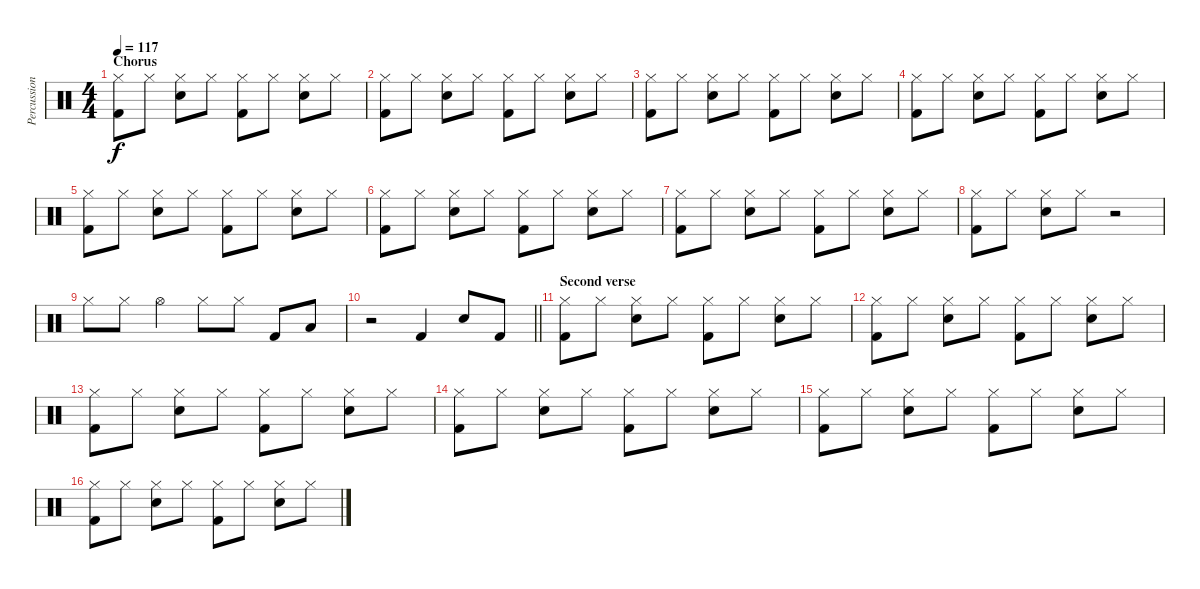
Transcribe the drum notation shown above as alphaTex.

\track ("Percussion" "Percussion") {instrument percussion}
\staff {score}
\articulation defaults
\ts (4 4)
\section ("" "Chorus")
\tempo 117
\clef neutral
\ks c
("Kick (hit) 2" "Hi-Hat (closed)").8{dy f} "Hi-Hat (closed)".8 ("Hi-Hat (closed)" "Snare (hit) 2").8 "Hi-Hat (closed)".8 ("Kick (hit) 2" "Hi-Hat (closed)").8 "Hi-Hat (closed)".8 ("Hi-Hat (closed)" "Snare (hit) 2").8 "Hi-Hat (closed)".8 |
("Kick (hit) 2" "Hi-Hat (closed)").8 "Hi-Hat (closed)".8 ("Hi-Hat (closed)" "Snare (hit) 2").8 "Hi-Hat (closed)".8 ("Kick (hit) 2" "Hi-Hat (closed)").8 "Hi-Hat (closed)".8 ("Hi-Hat (closed)" "Snare (hit) 2").8 "Hi-Hat (closed)".8 |
("Kick (hit) 2" "Hi-Hat (closed)").8 "Hi-Hat (closed)".8 ("Hi-Hat (closed)" "Snare (hit) 2").8 "Hi-Hat (closed)".8 ("Kick (hit) 2" "Hi-Hat (closed)").8 "Hi-Hat (closed)".8 ("Hi-Hat (closed)" "Snare (hit) 2").8 "Hi-Hat (closed)".8 |
("Kick (hit) 2" "Hi-Hat (closed)").8 "Hi-Hat (closed)".8 ("Hi-Hat (closed)" "Snare (hit) 2").8 "Hi-Hat (closed)".8 ("Kick (hit) 2" "Hi-Hat (closed)").8 "Hi-Hat (closed)".8 ("Hi-Hat (closed)" "Snare (hit) 2").8 "Hi-Hat (closed)".8 |
("Kick (hit) 2" "Hi-Hat (closed)").8 "Hi-Hat (closed)".8 ("Hi-Hat (closed)" "Snare (hit) 2").8 "Hi-Hat (closed)".8 ("Kick (hit) 2" "Hi-Hat (closed)").8 "Hi-Hat (closed)".8 ("Hi-Hat (closed)" "Snare (hit) 2").8 "Hi-Hat (closed)".8 |
("Kick (hit) 2" "Hi-Hat (closed)").8 "Hi-Hat (closed)".8 ("Hi-Hat (closed)" "Snare (hit) 2").8 "Hi-Hat (closed)".8 ("Kick (hit) 2" "Hi-Hat (closed)").8 "Hi-Hat (closed)".8 ("Hi-Hat (closed)" "Snare (hit) 2").8 "Hi-Hat (closed)".8 |
("Kick (hit) 2" "Hi-Hat (closed)").8 "Hi-Hat (closed)".8 ("Hi-Hat (closed)" "Snare (hit) 2").8 "Hi-Hat (closed)".8 ("Kick (hit) 2" "Hi-Hat (closed)").8 "Hi-Hat (closed)".8 ("Hi-Hat (closed)" "Snare (hit) 2").8 "Hi-Hat (closed)".8 |
("Kick (hit) 2" "Hi-Hat (closed)").8 "Hi-Hat (closed)".8 ("Hi-Hat (closed)" "Snare (hit) 2").8 "Hi-Hat (closed)".8 r.2 |
"Hi-Hat (closed)".8 "Hi-Hat (closed)".8 "Hi-Hat (open)".4 "Hi-Hat (closed)".8 "Hi-Hat (closed)".8 "Kick (hit) 2".8 "Low Tom (hit)".8 |
\barLineRight lightlight
r.2 "Kick (hit) 2".4 "Snare (hit) 2".8 "Kick (hit) 2".8 |
\section ("" "Second verse")
("Kick (hit) 2" "Hi-Hat (closed)").8 "Hi-Hat (closed)".8 ("Hi-Hat (closed)" "Snare (hit) 2").8 "Hi-Hat (closed)".8 ("Kick (hit) 2" "Hi-Hat (closed)").8 "Hi-Hat (closed)".8 ("Hi-Hat (closed)" "Snare (hit) 2").8 "Hi-Hat (closed)".8 |
("Kick (hit) 2" "Hi-Hat (closed)").8 "Hi-Hat (closed)".8 ("Hi-Hat (closed)" "Snare (hit) 2").8 "Hi-Hat (closed)".8 ("Kick (hit) 2" "Hi-Hat (closed)").8 "Hi-Hat (closed)".8 ("Hi-Hat (closed)" "Snare (hit) 2").8 "Hi-Hat (closed)".8 |
("Kick (hit) 2" "Hi-Hat (closed)").8 "Hi-Hat (closed)".8 ("Hi-Hat (closed)" "Snare (hit) 2").8 "Hi-Hat (closed)".8 ("Kick (hit) 2" "Hi-Hat (closed)").8 "Hi-Hat (closed)".8 ("Hi-Hat (closed)" "Snare (hit) 2").8 "Hi-Hat (closed)".8 |
("Kick (hit) 2" "Hi-Hat (closed)").8 "Hi-Hat (closed)".8 ("Hi-Hat (closed)" "Snare (hit) 2").8 "Hi-Hat (closed)".8 ("Kick (hit) 2" "Hi-Hat (closed)").8 "Hi-Hat (closed)".8 ("Hi-Hat (closed)" "Snare (hit) 2").8 "Hi-Hat (closed)".8 |
("Kick (hit) 2" "Hi-Hat (closed)").8 "Hi-Hat (closed)".8 ("Hi-Hat (closed)" "Snare (hit) 2").8 "Hi-Hat (closed)".8 ("Kick (hit) 2" "Hi-Hat (closed)").8 "Hi-Hat (closed)".8 ("Hi-Hat (closed)" "Snare (hit) 2").8 "Hi-Hat (closed)".8 |
("Kick (hit) 2" "Hi-Hat (closed)").8 "Hi-Hat (closed)".8 ("Hi-Hat (closed)" "Snare (hit) 2").8 "Hi-Hat (closed)".8 ("Kick (hit) 2" "Hi-Hat (closed)").8 "Hi-Hat (closed)".8 ("Hi-Hat (closed)" "Snare (hit) 2").8 "Hi-Hat (closed)".8
